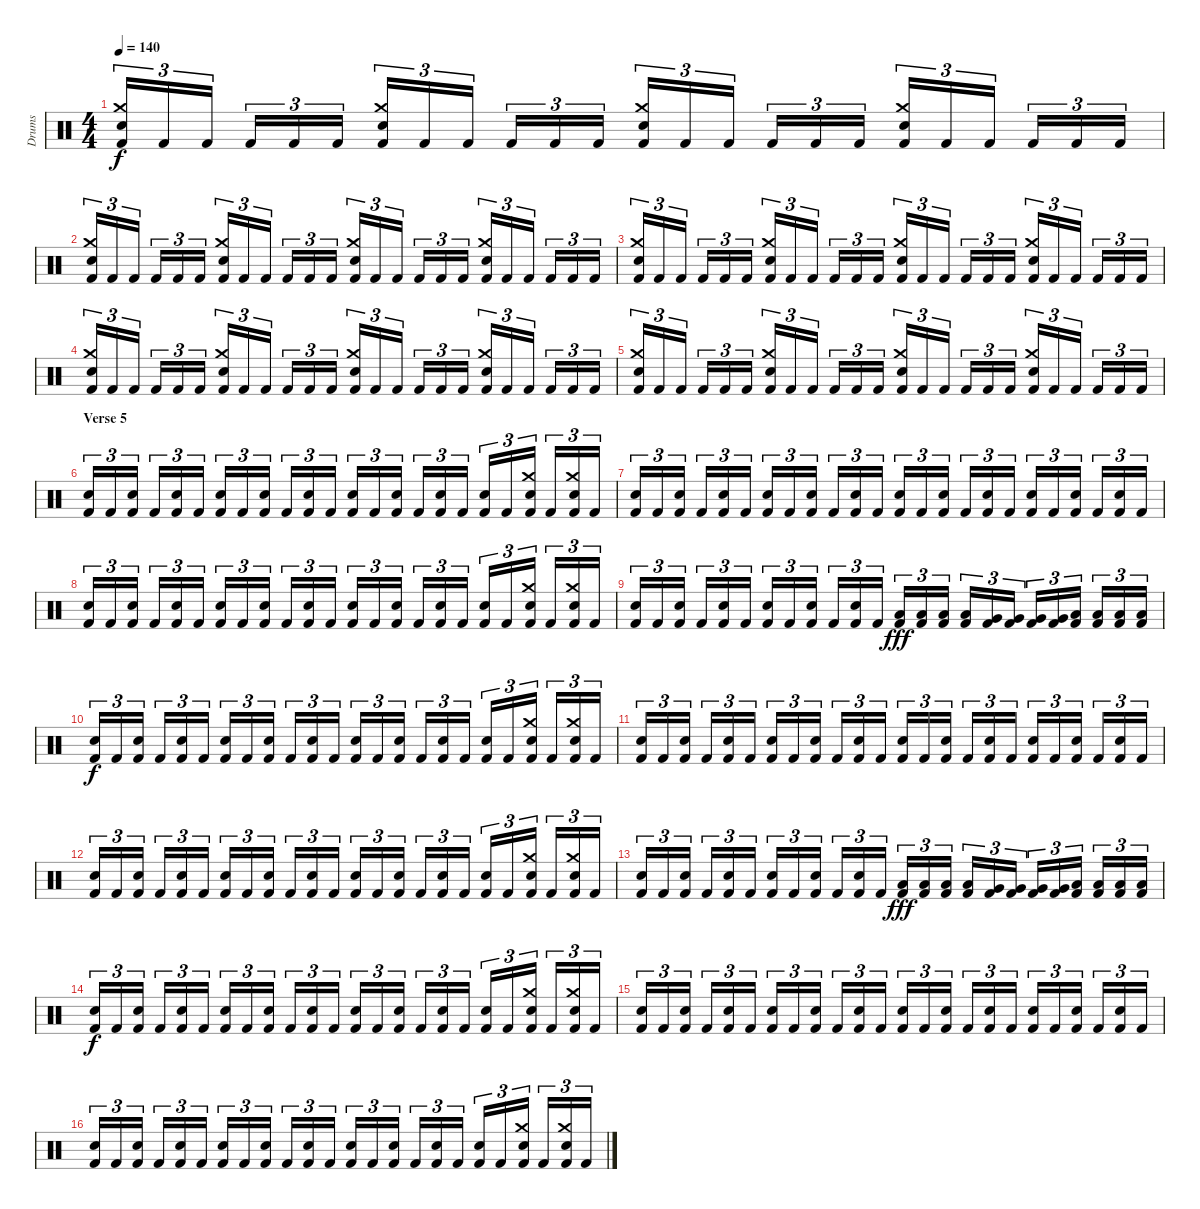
\track ("Drums" "Drums") {instrument percussion}
\staff {score}
\articulation defaults
\ts (4 4)
\tempo 140
\clef neutral
\ks c
("Snare (hit) 2" "Crash medium (hit)" "Kick (hit) 2").16{tu (3 2) dy f} "Kick (hit) 2".16{tu (3 2)} "Kick (hit) 2".16{tu (3 2)} "Kick (hit) 2".16{tu (3 2)} "Kick (hit) 2".16{tu (3 2)} "Kick (hit) 2".16{tu (3 2)} ("Snare (hit) 2" "Crash medium (hit)" "Kick (hit) 2").16{tu (3 2)} "Kick (hit) 2".16{tu (3 2)} "Kick (hit) 2".16{tu (3 2)} "Kick (hit) 2".16{tu (3 2)} "Kick (hit) 2".16{tu (3 2)} "Kick (hit) 2".16{tu (3 2)} ("Snare (hit) 2" "Crash medium (hit)" "Kick (hit) 2").16{tu (3 2)} "Kick (hit) 2".16{tu (3 2)} "Kick (hit) 2".16{tu (3 2)} "Kick (hit) 2".16{tu (3 2)} "Kick (hit) 2".16{tu (3 2)} "Kick (hit) 2".16{tu (3 2)} ("Snare (hit) 2" "Crash medium (hit)" "Kick (hit) 2").16{tu (3 2)} "Kick (hit) 2".16{tu (3 2)} "Kick (hit) 2".16{tu (3 2)} "Kick (hit) 2".16{tu (3 2)} "Kick (hit) 2".16{tu (3 2)} "Kick (hit) 2".16{tu (3 2)} |
("Snare (hit) 2" "Crash medium (hit)" "Kick (hit) 2").16{tu (3 2)} "Kick (hit) 2".16{tu (3 2)} "Kick (hit) 2".16{tu (3 2)} "Kick (hit) 2".16{tu (3 2)} "Kick (hit) 2".16{tu (3 2)} "Kick (hit) 2".16{tu (3 2)} ("Snare (hit) 2" "Crash medium (hit)" "Kick (hit) 2").16{tu (3 2)} "Kick (hit) 2".16{tu (3 2)} "Kick (hit) 2".16{tu (3 2)} "Kick (hit) 2".16{tu (3 2)} "Kick (hit) 2".16{tu (3 2)} "Kick (hit) 2".16{tu (3 2)} ("Snare (hit) 2" "Crash medium (hit)" "Kick (hit) 2").16{tu (3 2)} "Kick (hit) 2".16{tu (3 2)} "Kick (hit) 2".16{tu (3 2)} "Kick (hit) 2".16{tu (3 2)} "Kick (hit) 2".16{tu (3 2)} "Kick (hit) 2".16{tu (3 2)} ("Snare (hit) 2" "Crash medium (hit)" "Kick (hit) 2").16{tu (3 2)} "Kick (hit) 2".16{tu (3 2)} "Kick (hit) 2".16{tu (3 2)} "Kick (hit) 2".16{tu (3 2)} "Kick (hit) 2".16{tu (3 2)} "Kick (hit) 2".16{tu (3 2)} |
("Snare (hit) 2" "Crash medium (hit)" "Kick (hit) 2").16{tu (3 2)} "Kick (hit) 2".16{tu (3 2)} "Kick (hit) 2".16{tu (3 2)} "Kick (hit) 2".16{tu (3 2)} "Kick (hit) 2".16{tu (3 2)} "Kick (hit) 2".16{tu (3 2)} ("Snare (hit) 2" "Crash medium (hit)" "Kick (hit) 2").16{tu (3 2)} "Kick (hit) 2".16{tu (3 2)} "Kick (hit) 2".16{tu (3 2)} "Kick (hit) 2".16{tu (3 2)} "Kick (hit) 2".16{tu (3 2)} "Kick (hit) 2".16{tu (3 2)} ("Snare (hit) 2" "Crash medium (hit)" "Kick (hit) 2").16{tu (3 2)} "Kick (hit) 2".16{tu (3 2)} "Kick (hit) 2".16{tu (3 2)} "Kick (hit) 2".16{tu (3 2)} "Kick (hit) 2".16{tu (3 2)} "Kick (hit) 2".16{tu (3 2)} ("Snare (hit) 2" "Crash medium (hit)" "Kick (hit) 2").16{tu (3 2)} "Kick (hit) 2".16{tu (3 2)} "Kick (hit) 2".16{tu (3 2)} "Kick (hit) 2".16{tu (3 2)} "Kick (hit) 2".16{tu (3 2)} "Kick (hit) 2".16{tu (3 2)} |
("Snare (hit) 2" "Crash medium (hit)" "Kick (hit) 2").16{tu (3 2)} "Kick (hit) 2".16{tu (3 2)} "Kick (hit) 2".16{tu (3 2)} "Kick (hit) 2".16{tu (3 2)} "Kick (hit) 2".16{tu (3 2)} "Kick (hit) 2".16{tu (3 2)} ("Snare (hit) 2" "Crash medium (hit)" "Kick (hit) 2").16{tu (3 2)} "Kick (hit) 2".16{tu (3 2)} "Kick (hit) 2".16{tu (3 2)} "Kick (hit) 2".16{tu (3 2)} "Kick (hit) 2".16{tu (3 2)} "Kick (hit) 2".16{tu (3 2)} ("Snare (hit) 2" "Crash medium (hit)" "Kick (hit) 2").16{tu (3 2)} "Kick (hit) 2".16{tu (3 2)} "Kick (hit) 2".16{tu (3 2)} "Kick (hit) 2".16{tu (3 2)} "Kick (hit) 2".16{tu (3 2)} "Kick (hit) 2".16{tu (3 2)} ("Snare (hit) 2" "Crash medium (hit)" "Kick (hit) 2").16{tu (3 2)} "Kick (hit) 2".16{tu (3 2)} "Kick (hit) 2".16{tu (3 2)} "Kick (hit) 2".16{tu (3 2)} "Kick (hit) 2".16{tu (3 2)} "Kick (hit) 2".16{tu (3 2)} |
("Snare (hit) 2" "Crash medium (hit)" "Kick (hit) 2").16{tu (3 2)} "Kick (hit) 2".16{tu (3 2)} "Kick (hit) 2".16{tu (3 2)} "Kick (hit) 2".16{tu (3 2)} "Kick (hit) 2".16{tu (3 2)} "Kick (hit) 2".16{tu (3 2)} ("Snare (hit) 2" "Crash medium (hit)" "Kick (hit) 2").16{tu (3 2)} "Kick (hit) 2".16{tu (3 2)} "Kick (hit) 2".16{tu (3 2)} "Kick (hit) 2".16{tu (3 2)} "Kick (hit) 2".16{tu (3 2)} "Kick (hit) 2".16{tu (3 2)} ("Snare (hit) 2" "Crash medium (hit)" "Kick (hit) 2").16{tu (3 2)} "Kick (hit) 2".16{tu (3 2)} "Kick (hit) 2".16{tu (3 2)} "Kick (hit) 2".16{tu (3 2)} "Kick (hit) 2".16{tu (3 2)} "Kick (hit) 2".16{tu (3 2)} ("Snare (hit) 2" "Crash medium (hit)" "Kick (hit) 2").16{tu (3 2)} "Kick (hit) 2".16{tu (3 2)} "Kick (hit) 2".16{tu (3 2)} "Kick (hit) 2".16{tu (3 2)} "Kick (hit) 2".16{tu (3 2)} "Kick (hit) 2".16{tu (3 2)} |
\section ("" "Verse 5")
("Snare (hit) 2" "Kick (hit) 2").16{tu (3 2)} "Kick (hit) 2".16{tu (3 2)} ("Snare (hit) 2" "Kick (hit) 2").16{tu (3 2)} "Kick (hit) 2".16{tu (3 2)} ("Snare (hit) 2" "Kick (hit) 2").16{tu (3 2)} "Kick (hit) 2".16{tu (3 2)} ("Snare (hit) 2" "Kick (hit) 2").16{tu (3 2)} "Kick (hit) 2".16{tu (3 2)} ("Snare (hit) 2" "Kick (hit) 2").16{tu (3 2)} "Kick (hit) 2".16{tu (3 2)} ("Snare (hit) 2" "Kick (hit) 2").16{tu (3 2)} "Kick (hit) 2".16{tu (3 2)} ("Snare (hit) 2" "Kick (hit) 2").16{tu (3 2)} "Kick (hit) 2".16{tu (3 2)} ("Snare (hit) 2" "Kick (hit) 2").16{tu (3 2)} "Kick (hit) 2".16{tu (3 2)} ("Snare (hit) 2" "Kick (hit) 2").16{tu (3 2)} "Kick (hit) 2".16{tu (3 2)} ("Snare (hit) 2" "Kick (hit) 2").16{tu (3 2)} "Kick (hit) 2".16{tu (3 2)} ("Snare (hit) 2" "Crash medium (hit)" "Kick (hit) 2").16{tu (3 2)} "Kick (hit) 2".16{tu (3 2)} ("Snare (hit) 2" "Crash medium (hit)" "Kick (hit) 2").16{tu (3 2)} "Kick (hit) 2".16{tu (3 2)} |
("Snare (hit) 2" "Kick (hit) 2").16{tu (3 2)} "Kick (hit) 2".16{tu (3 2)} ("Snare (hit) 2" "Kick (hit) 2").16{tu (3 2)} "Kick (hit) 2".16{tu (3 2)} ("Snare (hit) 2" "Kick (hit) 2").16{tu (3 2)} "Kick (hit) 2".16{tu (3 2)} ("Snare (hit) 2" "Kick (hit) 2").16{tu (3 2)} "Kick (hit) 2".16{tu (3 2)} ("Snare (hit) 2" "Kick (hit) 2").16{tu (3 2)} "Kick (hit) 2".16{tu (3 2)} ("Snare (hit) 2" "Kick (hit) 2").16{tu (3 2)} "Kick (hit) 2".16{tu (3 2)} ("Snare (hit) 2" "Kick (hit) 2").16{tu (3 2)} "Kick (hit) 2".16{tu (3 2)} ("Snare (hit) 2" "Kick (hit) 2").16{tu (3 2)} "Kick (hit) 2".16{tu (3 2)} ("Snare (hit) 2" "Kick (hit) 2").16{tu (3 2)} "Kick (hit) 2".16{tu (3 2)} ("Snare (hit) 2" "Kick (hit) 2").16{tu (3 2)} "Kick (hit) 2".16{tu (3 2)} ("Snare (hit) 2" "Kick (hit) 2").16{tu (3 2)} "Kick (hit) 2".16{tu (3 2)} ("Snare (hit) 2" "Kick (hit) 2").16{tu (3 2)} "Kick (hit) 2".16{tu (3 2)} |
("Snare (hit) 2" "Kick (hit) 2").16{tu (3 2)} "Kick (hit) 2".16{tu (3 2)} ("Snare (hit) 2" "Kick (hit) 2").16{tu (3 2)} "Kick (hit) 2".16{tu (3 2)} ("Snare (hit) 2" "Kick (hit) 2").16{tu (3 2)} "Kick (hit) 2".16{tu (3 2)} ("Snare (hit) 2" "Kick (hit) 2").16{tu (3 2)} "Kick (hit) 2".16{tu (3 2)} ("Snare (hit) 2" "Kick (hit) 2").16{tu (3 2)} "Kick (hit) 2".16{tu (3 2)} ("Snare (hit) 2" "Kick (hit) 2").16{tu (3 2)} "Kick (hit) 2".16{tu (3 2)} ("Snare (hit) 2" "Kick (hit) 2").16{tu (3 2)} "Kick (hit) 2".16{tu (3 2)} ("Snare (hit) 2" "Kick (hit) 2").16{tu (3 2)} "Kick (hit) 2".16{tu (3 2)} ("Snare (hit) 2" "Kick (hit) 2").16{tu (3 2)} "Kick (hit) 2".16{tu (3 2)} ("Snare (hit) 2" "Kick (hit) 2").16{tu (3 2)} "Kick (hit) 2".16{tu (3 2)} ("Snare (hit) 2" "Crash medium (hit)" "Kick (hit) 2").16{tu (3 2)} "Kick (hit) 2".16{tu (3 2)} ("Snare (hit) 2" "Crash medium (hit)" "Kick (hit) 2").16{tu (3 2)} "Kick (hit) 2".16{tu (3 2)} |
("Snare (hit) 2" "Kick (hit) 2").16{tu (3 2)} "Kick (hit) 2".16{tu (3 2)} ("Snare (hit) 2" "Kick (hit) 2").16{tu (3 2)} "Kick (hit) 2".16{tu (3 2)} ("Snare (hit) 2" "Kick (hit) 2").16{tu (3 2)} "Kick (hit) 2".16{tu (3 2)} ("Snare (hit) 2" "Kick (hit) 2").16{tu (3 2)} "Kick (hit) 2".16{tu (3 2)} ("Snare (hit) 2" "Kick (hit) 2").16{tu (3 2)} "Kick (hit) 2".16{tu (3 2)} ("Snare (hit) 2" "Kick (hit) 2").16{tu (3 2)} "Kick (hit) 2".16{tu (3 2)} ("Low Tom (hit)" "Kick (hit) 2").16{tu (3 2) dy fff} ("Low Tom (hit)" "Kick (hit) 2").16{tu (3 2)} ("Low Tom (hit)" "Kick (hit) 2").16{tu (3 2)} ("Low Tom (hit)" "Kick (hit) 2").16{tu (3 2)} ("Very Low Tom (hit)" "Kick (hit) 2").16{tu (3 2)} ("Very Low Tom (hit)" "Kick (hit) 2").16{tu (3 2)} ("Very Low Tom (hit)" "Kick (hit) 2").16{tu (3 2)} ("Very Low Tom (hit)" "Kick (hit) 2").16{tu (3 2)} ("Low Floor Tom (hit)" "Kick (hit) 2").16{tu (3 2)} ("Low Floor Tom (hit)" "Kick (hit) 2").16{tu (3 2)} ("Low Floor Tom (hit)" "Kick (hit) 2").16{tu (3 2)} ("Low Floor Tom (hit)" "Kick (hit) 2").16{tu (3 2)} |
("Snare (hit) 2" "Kick (hit) 2").16{tu (3 2) dy f} "Kick (hit) 2".16{tu (3 2)} ("Snare (hit) 2" "Kick (hit) 2").16{tu (3 2)} "Kick (hit) 2".16{tu (3 2)} ("Snare (hit) 2" "Kick (hit) 2").16{tu (3 2)} "Kick (hit) 2".16{tu (3 2)} ("Snare (hit) 2" "Kick (hit) 2").16{tu (3 2)} "Kick (hit) 2".16{tu (3 2)} ("Snare (hit) 2" "Kick (hit) 2").16{tu (3 2)} "Kick (hit) 2".16{tu (3 2)} ("Snare (hit) 2" "Kick (hit) 2").16{tu (3 2)} "Kick (hit) 2".16{tu (3 2)} ("Snare (hit) 2" "Kick (hit) 2").16{tu (3 2)} "Kick (hit) 2".16{tu (3 2)} ("Snare (hit) 2" "Kick (hit) 2").16{tu (3 2)} "Kick (hit) 2".16{tu (3 2)} ("Snare (hit) 2" "Kick (hit) 2").16{tu (3 2)} "Kick (hit) 2".16{tu (3 2)} ("Snare (hit) 2" "Kick (hit) 2").16{tu (3 2)} "Kick (hit) 2".16{tu (3 2)} ("Snare (hit) 2" "Crash medium (hit)" "Kick (hit) 2").16{tu (3 2)} "Kick (hit) 2".16{tu (3 2)} ("Snare (hit) 2" "Crash medium (hit)" "Kick (hit) 2").16{tu (3 2)} "Kick (hit) 2".16{tu (3 2)} |
("Snare (hit) 2" "Kick (hit) 2").16{tu (3 2)} "Kick (hit) 2".16{tu (3 2)} ("Snare (hit) 2" "Kick (hit) 2").16{tu (3 2)} "Kick (hit) 2".16{tu (3 2)} ("Snare (hit) 2" "Kick (hit) 2").16{tu (3 2)} "Kick (hit) 2".16{tu (3 2)} ("Snare (hit) 2" "Kick (hit) 2").16{tu (3 2)} "Kick (hit) 2".16{tu (3 2)} ("Snare (hit) 2" "Kick (hit) 2").16{tu (3 2)} "Kick (hit) 2".16{tu (3 2)} ("Snare (hit) 2" "Kick (hit) 2").16{tu (3 2)} "Kick (hit) 2".16{tu (3 2)} ("Snare (hit) 2" "Kick (hit) 2").16{tu (3 2)} "Kick (hit) 2".16{tu (3 2)} ("Snare (hit) 2" "Kick (hit) 2").16{tu (3 2)} "Kick (hit) 2".16{tu (3 2)} ("Snare (hit) 2" "Kick (hit) 2").16{tu (3 2)} "Kick (hit) 2".16{tu (3 2)} ("Snare (hit) 2" "Kick (hit) 2").16{tu (3 2)} "Kick (hit) 2".16{tu (3 2)} ("Snare (hit) 2" "Kick (hit) 2").16{tu (3 2)} "Kick (hit) 2".16{tu (3 2)} ("Snare (hit) 2" "Kick (hit) 2").16{tu (3 2)} "Kick (hit) 2".16{tu (3 2)} |
("Snare (hit) 2" "Kick (hit) 2").16{tu (3 2)} "Kick (hit) 2".16{tu (3 2)} ("Snare (hit) 2" "Kick (hit) 2").16{tu (3 2)} "Kick (hit) 2".16{tu (3 2)} ("Snare (hit) 2" "Kick (hit) 2").16{tu (3 2)} "Kick (hit) 2".16{tu (3 2)} ("Snare (hit) 2" "Kick (hit) 2").16{tu (3 2)} "Kick (hit) 2".16{tu (3 2)} ("Snare (hit) 2" "Kick (hit) 2").16{tu (3 2)} "Kick (hit) 2".16{tu (3 2)} ("Snare (hit) 2" "Kick (hit) 2").16{tu (3 2)} "Kick (hit) 2".16{tu (3 2)} ("Snare (hit) 2" "Kick (hit) 2").16{tu (3 2)} "Kick (hit) 2".16{tu (3 2)} ("Snare (hit) 2" "Kick (hit) 2").16{tu (3 2)} "Kick (hit) 2".16{tu (3 2)} ("Snare (hit) 2" "Kick (hit) 2").16{tu (3 2)} "Kick (hit) 2".16{tu (3 2)} ("Snare (hit) 2" "Kick (hit) 2").16{tu (3 2)} "Kick (hit) 2".16{tu (3 2)} ("Snare (hit) 2" "Crash medium (hit)" "Kick (hit) 2").16{tu (3 2)} "Kick (hit) 2".16{tu (3 2)} ("Snare (hit) 2" "Crash medium (hit)" "Kick (hit) 2").16{tu (3 2)} "Kick (hit) 2".16{tu (3 2)} |
("Snare (hit) 2" "Kick (hit) 2").16{tu (3 2)} "Kick (hit) 2".16{tu (3 2)} ("Snare (hit) 2" "Kick (hit) 2").16{tu (3 2)} "Kick (hit) 2".16{tu (3 2)} ("Snare (hit) 2" "Kick (hit) 2").16{tu (3 2)} "Kick (hit) 2".16{tu (3 2)} ("Snare (hit) 2" "Kick (hit) 2").16{tu (3 2)} "Kick (hit) 2".16{tu (3 2)} ("Snare (hit) 2" "Kick (hit) 2").16{tu (3 2)} "Kick (hit) 2".16{tu (3 2)} ("Snare (hit) 2" "Kick (hit) 2").16{tu (3 2)} "Kick (hit) 2".16{tu (3 2)} ("Low Tom (hit)" "Kick (hit) 2").16{tu (3 2) dy fff} ("Low Tom (hit)" "Kick (hit) 2").16{tu (3 2)} ("Low Tom (hit)" "Kick (hit) 2").16{tu (3 2)} ("Low Tom (hit)" "Kick (hit) 2").16{tu (3 2)} ("Very Low Tom (hit)" "Kick (hit) 2").16{tu (3 2)} ("Very Low Tom (hit)" "Kick (hit) 2").16{tu (3 2)} ("Very Low Tom (hit)" "Kick (hit) 2").16{tu (3 2)} ("Very Low Tom (hit)" "Kick (hit) 2").16{tu (3 2)} ("Low Floor Tom (hit)" "Kick (hit) 2").16{tu (3 2)} ("Low Floor Tom (hit)" "Kick (hit) 2").16{tu (3 2)} ("Low Floor Tom (hit)" "Kick (hit) 2").16{tu (3 2)} ("Low Floor Tom (hit)" "Kick (hit) 2").16{tu (3 2)} |
("Snare (hit) 2" "Kick (hit) 2").16{tu (3 2) dy f} "Kick (hit) 2".16{tu (3 2)} ("Snare (hit) 2" "Kick (hit) 2").16{tu (3 2)} "Kick (hit) 2".16{tu (3 2)} ("Snare (hit) 2" "Kick (hit) 2").16{tu (3 2)} "Kick (hit) 2".16{tu (3 2)} ("Snare (hit) 2" "Kick (hit) 2").16{tu (3 2)} "Kick (hit) 2".16{tu (3 2)} ("Snare (hit) 2" "Kick (hit) 2").16{tu (3 2)} "Kick (hit) 2".16{tu (3 2)} ("Snare (hit) 2" "Kick (hit) 2").16{tu (3 2)} "Kick (hit) 2".16{tu (3 2)} ("Snare (hit) 2" "Kick (hit) 2").16{tu (3 2)} "Kick (hit) 2".16{tu (3 2)} ("Snare (hit) 2" "Kick (hit) 2").16{tu (3 2)} "Kick (hit) 2".16{tu (3 2)} ("Snare (hit) 2" "Kick (hit) 2").16{tu (3 2)} "Kick (hit) 2".16{tu (3 2)} ("Snare (hit) 2" "Kick (hit) 2").16{tu (3 2)} "Kick (hit) 2".16{tu (3 2)} ("Snare (hit) 2" "Crash medium (hit)" "Kick (hit) 2").16{tu (3 2)} "Kick (hit) 2".16{tu (3 2)} ("Snare (hit) 2" "Crash medium (hit)" "Kick (hit) 2").16{tu (3 2)} "Kick (hit) 2".16{tu (3 2)} |
("Snare (hit) 2" "Kick (hit) 2").16{tu (3 2)} "Kick (hit) 2".16{tu (3 2)} ("Snare (hit) 2" "Kick (hit) 2").16{tu (3 2)} "Kick (hit) 2".16{tu (3 2)} ("Snare (hit) 2" "Kick (hit) 2").16{tu (3 2)} "Kick (hit) 2".16{tu (3 2)} ("Snare (hit) 2" "Kick (hit) 2").16{tu (3 2)} "Kick (hit) 2".16{tu (3 2)} ("Snare (hit) 2" "Kick (hit) 2").16{tu (3 2)} "Kick (hit) 2".16{tu (3 2)} ("Snare (hit) 2" "Kick (hit) 2").16{tu (3 2)} "Kick (hit) 2".16{tu (3 2)} ("Snare (hit) 2" "Kick (hit) 2").16{tu (3 2)} "Kick (hit) 2".16{tu (3 2)} ("Snare (hit) 2" "Kick (hit) 2").16{tu (3 2)} "Kick (hit) 2".16{tu (3 2)} ("Snare (hit) 2" "Kick (hit) 2").16{tu (3 2)} "Kick (hit) 2".16{tu (3 2)} ("Snare (hit) 2" "Kick (hit) 2").16{tu (3 2)} "Kick (hit) 2".16{tu (3 2)} ("Snare (hit) 2" "Kick (hit) 2").16{tu (3 2)} "Kick (hit) 2".16{tu (3 2)} ("Snare (hit) 2" "Kick (hit) 2").16{tu (3 2)} "Kick (hit) 2".16{tu (3 2)} |
("Snare (hit) 2" "Kick (hit) 2").16{tu (3 2)} "Kick (hit) 2".16{tu (3 2)} ("Snare (hit) 2" "Kick (hit) 2").16{tu (3 2)} "Kick (hit) 2".16{tu (3 2)} ("Snare (hit) 2" "Kick (hit) 2").16{tu (3 2)} "Kick (hit) 2".16{tu (3 2)} ("Snare (hit) 2" "Kick (hit) 2").16{tu (3 2)} "Kick (hit) 2".16{tu (3 2)} ("Snare (hit) 2" "Kick (hit) 2").16{tu (3 2)} "Kick (hit) 2".16{tu (3 2)} ("Snare (hit) 2" "Kick (hit) 2").16{tu (3 2)} "Kick (hit) 2".16{tu (3 2)} ("Snare (hit) 2" "Kick (hit) 2").16{tu (3 2)} "Kick (hit) 2".16{tu (3 2)} ("Snare (hit) 2" "Kick (hit) 2").16{tu (3 2)} "Kick (hit) 2".16{tu (3 2)} ("Snare (hit) 2" "Kick (hit) 2").16{tu (3 2)} "Kick (hit) 2".16{tu (3 2)} ("Snare (hit) 2" "Kick (hit) 2").16{tu (3 2)} "Kick (hit) 2".16{tu (3 2)} ("Snare (hit) 2" "Crash medium (hit)" "Kick (hit) 2").16{tu (3 2)} "Kick (hit) 2".16{tu (3 2)} ("Snare (hit) 2" "Crash medium (hit)" "Kick (hit) 2").16{tu (3 2)} "Kick (hit) 2".16{tu (3 2)}
